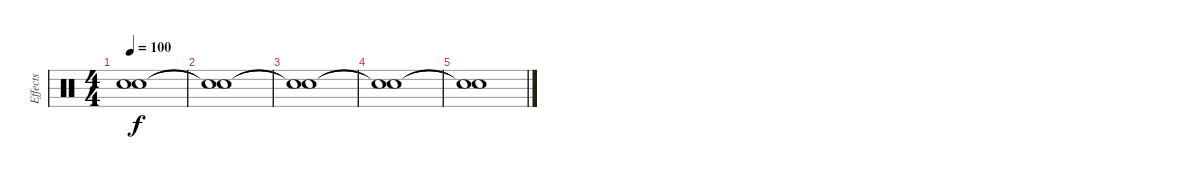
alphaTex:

\track ("Effects" "Effects") {instrument percussion}
\staff {score}
\articulation defaults
\ts (4 4)
\tempo 100
\clef neutral
\ks c
("Snare (hit)"{t} "Snare (hit)"{t}).1{dy f} |
("Snare (hit)"{t} "Snare (hit)"{t}).1 |
("Snare (hit)"{t} "Snare (hit)"{t}).1 |
("Snare (hit)"{t} "Snare (hit)"{t}).1 |
("Snare (hit)"{t} "Snare (hit)"{t}).1{volume 0}
